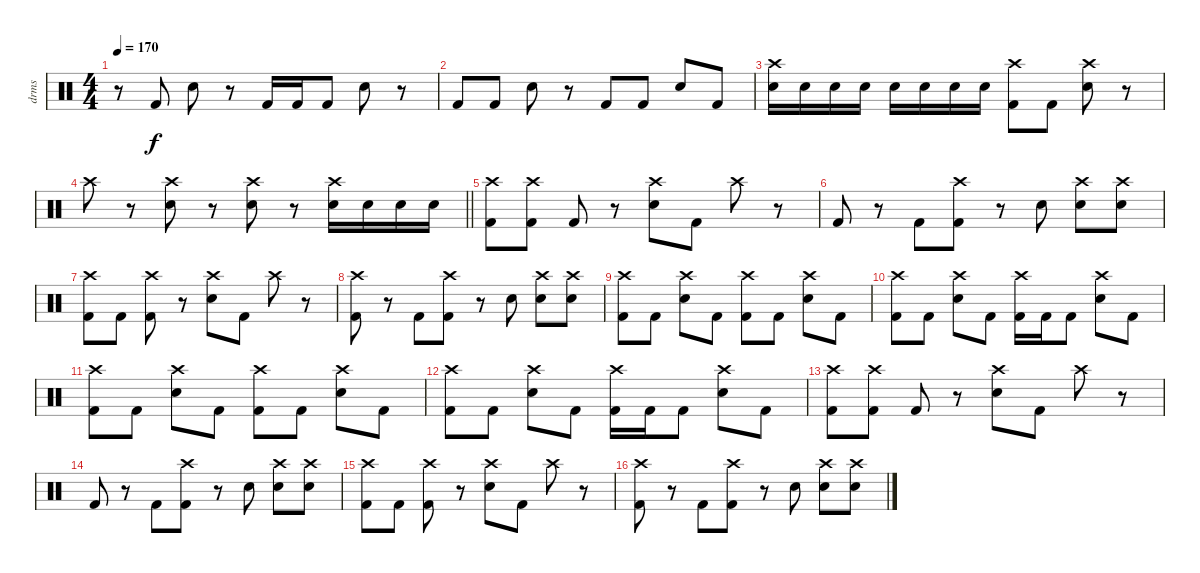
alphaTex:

\track ("drms" "drms") {instrument percussion}
\staff {score}
\articulation defaults
\ts (4 4)
\tempo 170
\clef neutral
\ks c
r.8{dy f} "Kick (hit) 2".8 "Snare (hit) 2".8 r.8 "Kick (hit) 2".16 "Kick (hit) 2".16 "Kick (hit) 2".8 "Snare (hit) 2".8 r.8 |
"Kick (hit) 2".8 "Kick (hit) 2".8 "Snare (hit) 2".8 r.8 "Kick (hit) 2".8 "Kick (hit) 2".8 "Snare (hit) 2".8 "Kick (hit) 2".8 |
("Crash high (hit)" "Snare (hit) 2").16 "Snare (hit) 2".16 "Snare (hit) 2".16 "Snare (hit) 2".16 "Snare (hit) 2".16 "Snare (hit) 2".16 "Snare (hit) 2".16 "Snare (hit) 2".16 ("Crash high (hit)" "Kick (hit) 2").8 "Kick (hit) 2".8 ("Crash high (hit)" "Snare (hit) 2").8 r.8 |
\barLineRight lightlight "Crash high (hit)".8
r.8 ("Crash high (hit)" "Electric Snare (hit)").8 r.8 ("Crash high (hit)" "Electric Snare (hit)").8 r.8 ("Crash high (hit)" "Electric Snare (hit)").16 "Electric Snare (hit)".16 "Electric Snare (hit)".16 "Electric Snare (hit)".16 |
("Crash high (hit)" "Kick (hit) 2").8 ("Crash high (hit)" "Kick (hit) 2").8 "Kick (hit) 2".8 r.8 ("Crash high (hit)" "Snare (hit) 2").8 "Kick (hit) 2".8 "Crash high (hit)".8 r.8 |
"Kick (hit) 2".8 r.8 "Kick (hit) 2".8 ("Crash high (hit)" "Kick (hit) 2").8 r.8 "Snare (hit) 2".8 ("Crash high (hit)" "Snare (hit) 2").8 ("Crash high (hit)" "Snare (hit) 2").8 |
("Crash high (hit)" "Kick (hit) 2").8 "Kick (hit) 2".8 ("Crash high (hit)" "Kick (hit) 2").8 r.8 ("Crash high (hit)" "Snare (hit) 2").8 "Kick (hit) 2".8 "Crash high (hit)".8 r.8 |
("Crash high (hit)" "Kick (hit) 2").8 r.8 "Kick (hit) 2".8 ("Crash high (hit)" "Kick (hit) 2").8 r.8 "Snare (hit) 2".8 ("Crash high (hit)" "Snare (hit) 2").8 ("Crash high (hit)" "Snare (hit) 2").8 |
("Crash high (hit)" "Kick (hit) 2").8 "Kick (hit) 2".8 ("Crash high (hit)" "Snare (hit) 2").8 "Kick (hit) 2".8 ("Crash high (hit)" "Kick (hit) 2").8 "Kick (hit) 2".8 ("Crash high (hit)" "Snare (hit) 2").8 "Kick (hit) 2".8 |
("Crash high (hit)" "Kick (hit) 2").8 "Kick (hit) 2".8 ("Crash high (hit)" "Snare (hit) 2").8 "Kick (hit) 2".8 ("Crash high (hit)" "Kick (hit) 2").16 "Kick (hit) 2".16 "Kick (hit) 2".8 ("Crash high (hit)" "Snare (hit) 2").8 "Kick (hit) 2".8 |
("Crash high (hit)" "Kick (hit) 2").8 "Kick (hit) 2".8 ("Crash high (hit)" "Snare (hit) 2").8 "Kick (hit) 2".8 ("Crash high (hit)" "Kick (hit) 2").8 "Kick (hit) 2".8 ("Crash high (hit)" "Snare (hit) 2").8 "Kick (hit) 2".8 |
("Crash high (hit)" "Kick (hit) 2").8 "Kick (hit) 2".8 ("Crash high (hit)" "Snare (hit) 2").8 "Kick (hit) 2".8 ("Crash high (hit)" "Kick (hit) 2").16 "Kick (hit) 2".16 "Kick (hit) 2".8 ("Crash high (hit)" "Snare (hit) 2").8 "Kick (hit) 2".8 |
("Crash high (hit)" "Kick (hit) 2").8 ("Crash high (hit)" "Kick (hit) 2").8 "Kick (hit) 2".8 r.8 ("Crash high (hit)" "Snare (hit) 2").8 "Kick (hit) 2".8 "Crash high (hit)".8 r.8 |
"Kick (hit) 2".8 r.8 "Kick (hit) 2".8 ("Crash high (hit)" "Kick (hit) 2").8 r.8 "Snare (hit) 2".8 ("Crash high (hit)" "Snare (hit) 2").8 ("Crash high (hit)" "Snare (hit) 2").8 |
("Crash high (hit)" "Kick (hit) 2").8 "Kick (hit) 2".8 ("Crash high (hit)" "Kick (hit) 2").8 r.8 ("Crash high (hit)" "Snare (hit) 2").8 "Kick (hit) 2".8 "Crash high (hit)".8 r.8 |
("Crash high (hit)" "Kick (hit) 2").8 r.8 "Kick (hit) 2".8 ("Crash high (hit)" "Kick (hit) 2").8 r.8 "Snare (hit) 2".8 ("Crash high (hit)" "Snare (hit) 2").8 ("Crash high (hit)" "Snare (hit) 2").8
